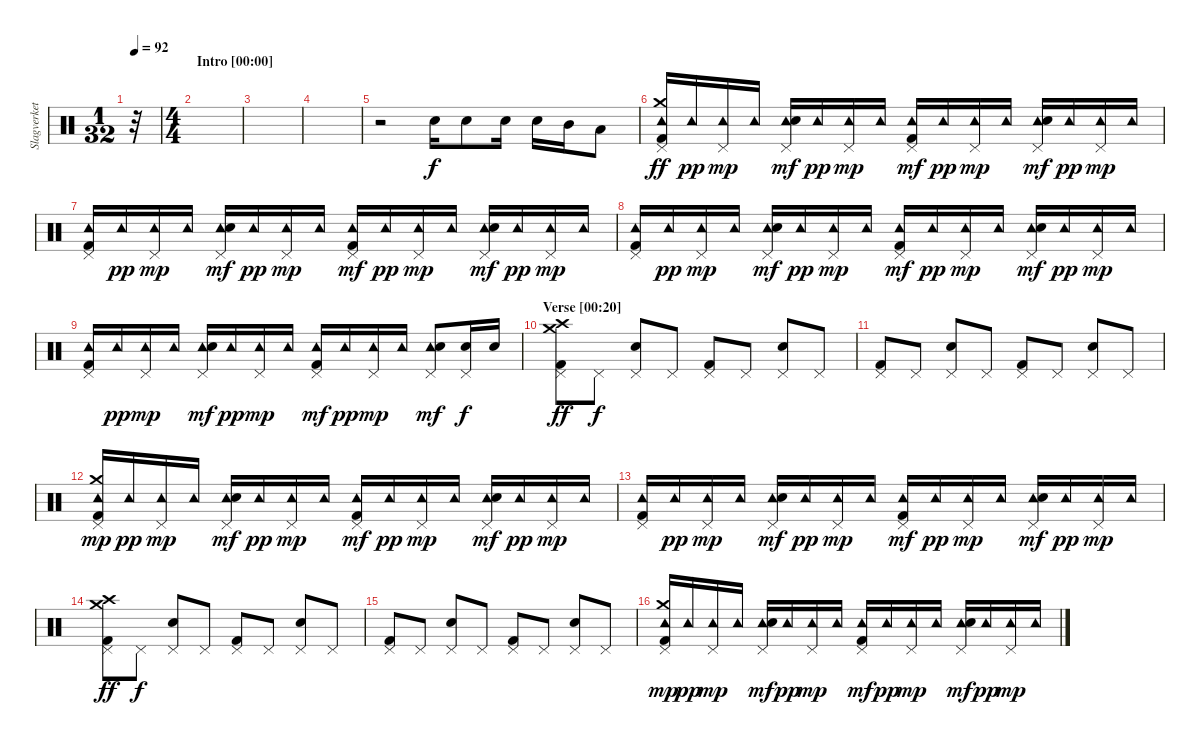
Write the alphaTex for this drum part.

\track ("Slagverket!" "Slagverket") {instrument percussion}
\staff {score}
\articulation defaults
\ts (1 32)
\tempo 92
\clef neutral
\ks c
r.32{dy f} |
\ts (4 4)
\section ("" "Intro [00:00]")
|
|
|
r.2 "Electric Snare (hit)".16 "Electric Snare (hit)".8 "Electric Snare (hit)".16 "Electric Snare (hit)".16 "Mid Tom (hit)".16 "Low Tom (hit)".8 |
("Pedal Hi-Hat (hit)" "Tambourine (hit)" "Crash medium (hit)" "Kick (hit) 2").16{dy ff} "Tambourine (hit)".16{dy pp} ("Pedal Hi-Hat (hit)" "Tambourine (hit)").16{dy mp} "Tambourine (hit)".16 ("Pedal Hi-Hat (hit)" "Tambourine (hit)" "Electric Snare (hit)").16{dy mf} "Tambourine (hit)".16{dy pp} ("Pedal Hi-Hat (hit)" "Tambourine (hit)").16{dy mp} "Tambourine (hit)".16 ("Pedal Hi-Hat (hit)" "Tambourine (hit)" "Kick (hit) 2").16{dy mf} "Tambourine (hit)".16{dy pp} ("Pedal Hi-Hat (hit)" "Tambourine (hit)").16{dy mp} "Tambourine (hit)".16 ("Pedal Hi-Hat (hit)" "Tambourine (hit)" "Electric Snare (hit)").16{dy mf} "Tambourine (hit)".16{dy pp} ("Pedal Hi-Hat (hit)" "Tambourine (hit)").16{dy mp} "Tambourine (hit)".16 |
("Pedal Hi-Hat (hit)" "Tambourine (hit)" "Kick (hit) 2").16 "Tambourine (hit)".16{dy pp} ("Pedal Hi-Hat (hit)" "Tambourine (hit)").16{dy mp} "Tambourine (hit)".16 ("Pedal Hi-Hat (hit)" "Tambourine (hit)" "Electric Snare (hit)").16{dy mf} "Tambourine (hit)".16{dy pp} ("Pedal Hi-Hat (hit)" "Tambourine (hit)").16{dy mp} "Tambourine (hit)".16 ("Pedal Hi-Hat (hit)" "Tambourine (hit)" "Kick (hit) 2").16{dy mf} "Tambourine (hit)".16{dy pp} ("Pedal Hi-Hat (hit)" "Tambourine (hit)").16{dy mp} "Tambourine (hit)".16 ("Pedal Hi-Hat (hit)" "Tambourine (hit)" "Electric Snare (hit)").16{dy mf} "Tambourine (hit)".16{dy pp} ("Pedal Hi-Hat (hit)" "Tambourine (hit)").16{dy mp} "Tambourine (hit)".16 |
("Pedal Hi-Hat (hit)" "Tambourine (hit)" "Kick (hit) 2").16 "Tambourine (hit)".16{dy pp} ("Pedal Hi-Hat (hit)" "Tambourine (hit)").16{dy mp} "Tambourine (hit)".16 ("Pedal Hi-Hat (hit)" "Tambourine (hit)" "Electric Snare (hit)").16{dy mf} "Tambourine (hit)".16{dy pp} ("Pedal Hi-Hat (hit)" "Tambourine (hit)").16{dy mp} "Tambourine (hit)".16 ("Pedal Hi-Hat (hit)" "Tambourine (hit)" "Kick (hit) 2").16{dy mf} "Tambourine (hit)".16{dy pp} ("Pedal Hi-Hat (hit)" "Tambourine (hit)").16{dy mp} "Tambourine (hit)".16 ("Pedal Hi-Hat (hit)" "Tambourine (hit)" "Electric Snare (hit)").16{dy mf} "Tambourine (hit)".16{dy pp} ("Pedal Hi-Hat (hit)" "Tambourine (hit)").16{dy mp} "Tambourine (hit)".16 |
("Pedal Hi-Hat (hit)" "Tambourine (hit)" "Kick (hit) 2").16 "Tambourine (hit)".16{dy pp} ("Pedal Hi-Hat (hit)" "Tambourine (hit)").16{dy mp} "Tambourine (hit)".16 ("Pedal Hi-Hat (hit)" "Tambourine (hit)" "Electric Snare (hit)").16{dy mf} "Tambourine (hit)".16{dy pp} ("Pedal Hi-Hat (hit)" "Tambourine (hit)").16{dy mp} "Tambourine (hit)".16 ("Pedal Hi-Hat (hit)" "Tambourine (hit)" "Kick (hit) 2").16{dy mf} "Tambourine (hit)".16{dy pp} ("Pedal Hi-Hat (hit)" "Tambourine (hit)").16{dy mp} "Tambourine (hit)".16 ("Pedal Hi-Hat (hit)" "Tambourine (hit)" "Electric Snare (hit)").8{dy mf} ("Pedal Hi-Hat (hit)" "Electric Snare (hit)").16{dy f} "Electric Snare (hit)".16 |
\section ("" "Verse [00:20]")
("Pedal Hi-Hat (hit)" "Crash high (hit)" "Crash medium (hit)" "Kick (hit) 2").8{dy ff} "Pedal Hi-Hat (hit)".8{dy f} ("Pedal Hi-Hat (hit)" "Electric Snare (hit)").8 "Pedal Hi-Hat (hit)".8 ("Pedal Hi-Hat (hit)" "Kick (hit) 2").8 "Pedal Hi-Hat (hit)".8 ("Pedal Hi-Hat (hit)" "Electric Snare (hit)").8 "Pedal Hi-Hat (hit)".8 |
("Pedal Hi-Hat (hit)" "Kick (hit) 2").8 "Pedal Hi-Hat (hit)".8 ("Pedal Hi-Hat (hit)" "Electric Snare (hit)").8 "Pedal Hi-Hat (hit)".8 ("Pedal Hi-Hat (hit)" "Kick (hit) 2").8 "Pedal Hi-Hat (hit)".8 ("Pedal Hi-Hat (hit)" "Electric Snare (hit)").8 "Pedal Hi-Hat (hit)".8 |
("Pedal Hi-Hat (hit)" "Tambourine (hit)" "Crash medium (hit)" "Kick (hit) 2").16{dy mp} "Tambourine (hit)".16{dy pp} ("Pedal Hi-Hat (hit)" "Tambourine (hit)").16{dy mp} "Tambourine (hit)".16 ("Pedal Hi-Hat (hit)" "Tambourine (hit)" "Electric Snare (hit)").16{dy mf} "Tambourine (hit)".16{dy pp} ("Pedal Hi-Hat (hit)" "Tambourine (hit)").16{dy mp} "Tambourine (hit)".16 ("Pedal Hi-Hat (hit)" "Tambourine (hit)" "Kick (hit) 2").16{dy mf} "Tambourine (hit)".16{dy pp} ("Pedal Hi-Hat (hit)" "Tambourine (hit)").16{dy mp} "Tambourine (hit)".16 ("Pedal Hi-Hat (hit)" "Tambourine (hit)" "Electric Snare (hit)").16{dy mf} "Tambourine (hit)".16{dy pp} ("Pedal Hi-Hat (hit)" "Tambourine (hit)").16{dy mp} "Tambourine (hit)".16 |
("Pedal Hi-Hat (hit)" "Tambourine (hit)" "Kick (hit) 2").16 "Tambourine (hit)".16{dy pp} ("Pedal Hi-Hat (hit)" "Tambourine (hit)").16{dy mp} "Tambourine (hit)".16 ("Pedal Hi-Hat (hit)" "Tambourine (hit)" "Electric Snare (hit)").16{dy mf} "Tambourine (hit)".16{dy pp} ("Pedal Hi-Hat (hit)" "Tambourine (hit)").16{dy mp} "Tambourine (hit)".16 ("Pedal Hi-Hat (hit)" "Tambourine (hit)" "Kick (hit) 2").16{dy mf} "Tambourine (hit)".16{dy pp} ("Pedal Hi-Hat (hit)" "Tambourine (hit)").16{dy mp} "Tambourine (hit)".16 ("Pedal Hi-Hat (hit)" "Tambourine (hit)" "Electric Snare (hit)").16{dy mf} "Tambourine (hit)".16{dy pp} ("Pedal Hi-Hat (hit)" "Tambourine (hit)").16{dy mp} "Tambourine (hit)".16 |
("Pedal Hi-Hat (hit)" "Crash high (hit)" "Crash medium (hit)" "Kick (hit) 2").8{dy ff} "Pedal Hi-Hat (hit)".8{dy f} ("Pedal Hi-Hat (hit)" "Electric Snare (hit)").8 "Pedal Hi-Hat (hit)".8 ("Pedal Hi-Hat (hit)" "Kick (hit) 2").8 "Pedal Hi-Hat (hit)".8 ("Pedal Hi-Hat (hit)" "Electric Snare (hit)").8 "Pedal Hi-Hat (hit)".8 |
("Pedal Hi-Hat (hit)" "Kick (hit) 2").8 "Pedal Hi-Hat (hit)".8 ("Pedal Hi-Hat (hit)" "Electric Snare (hit)").8 "Pedal Hi-Hat (hit)".8 ("Pedal Hi-Hat (hit)" "Kick (hit) 2").8 "Pedal Hi-Hat (hit)".8 ("Pedal Hi-Hat (hit)" "Electric Snare (hit)").8 "Pedal Hi-Hat (hit)".8 |
("Pedal Hi-Hat (hit)" "Tambourine (hit)" "Crash medium (hit)" "Kick (hit) 2").16{dy mp} "Tambourine (hit)".16{dy pp} ("Pedal Hi-Hat (hit)" "Tambourine (hit)").16{dy mp} "Tambourine (hit)".16 ("Pedal Hi-Hat (hit)" "Tambourine (hit)" "Electric Snare (hit)").16{dy mf} "Tambourine (hit)".16{dy pp} ("Pedal Hi-Hat (hit)" "Tambourine (hit)").16{dy mp} "Tambourine (hit)".16 ("Pedal Hi-Hat (hit)" "Tambourine (hit)" "Kick (hit) 2").16{dy mf} "Tambourine (hit)".16{dy pp} ("Pedal Hi-Hat (hit)" "Tambourine (hit)").16{dy mp} "Tambourine (hit)".16 ("Pedal Hi-Hat (hit)" "Tambourine (hit)" "Electric Snare (hit)").16{dy mf} "Tambourine (hit)".16{dy pp} ("Pedal Hi-Hat (hit)" "Tambourine (hit)").16{dy mp} "Tambourine (hit)".16
